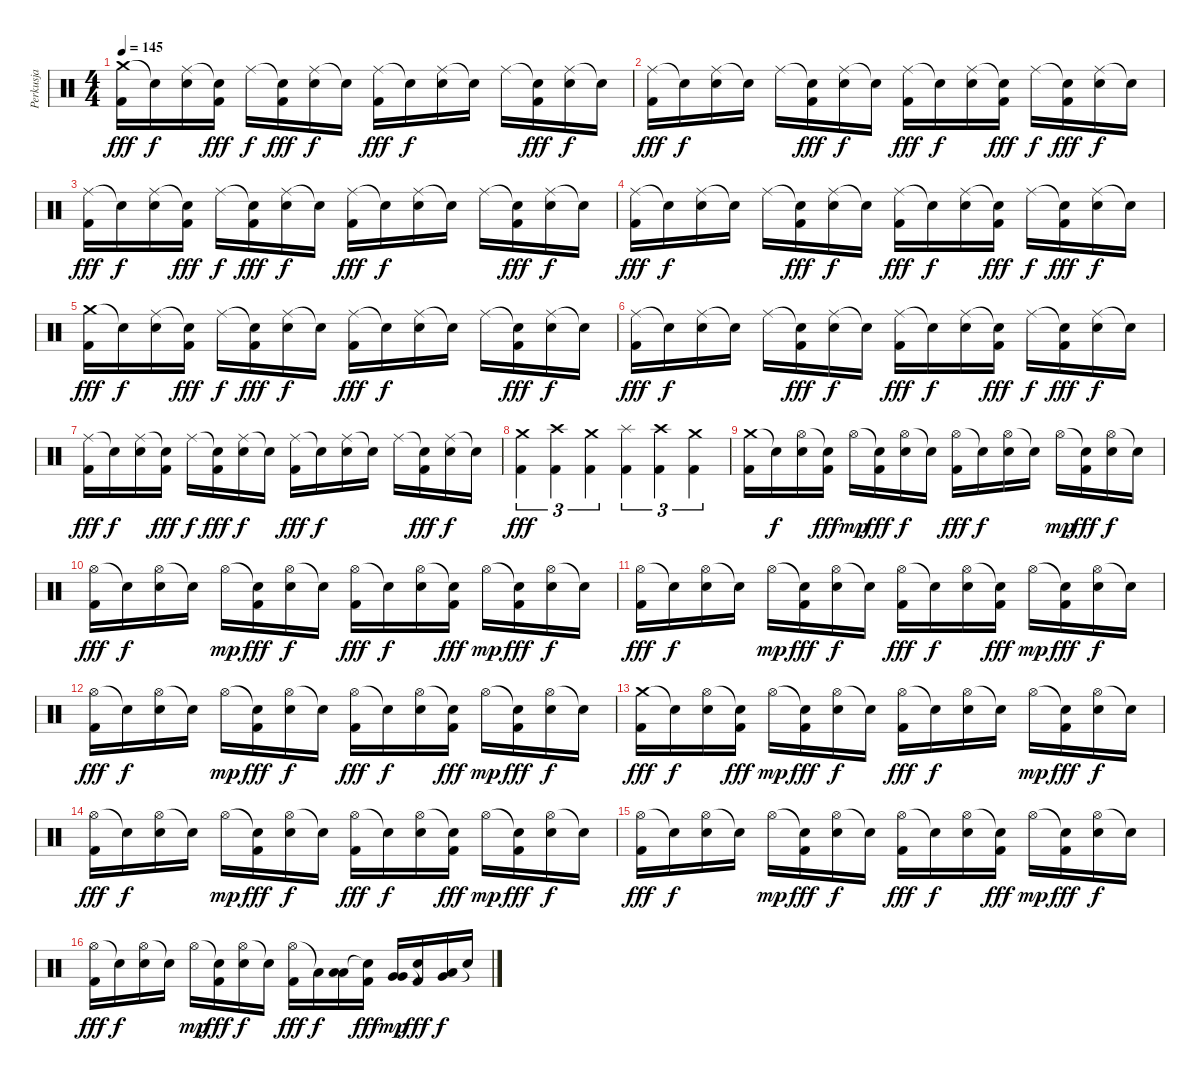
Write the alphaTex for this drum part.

\track ("Perkusja" "Perkusja") {instrument percussion}
\staff {score}
\articulation defaults
\ts (4 4)
\tempo 145
\clef neutral
\ks c
("Crash medium (hit)" "Kick (hit) 2").16{dy fff} "Snare (hit)"{t}.16{dy f} ("Ride (middle)" "Electric Snare (hit)").16 ("Snare (hit)"{t} "Kick (hit) 2").16{dy fff} "Ride (middle)".16{dy f} ("Snare (hit)"{t} "Kick (hit) 2").16{dy fff} ("Ride (middle)" "Electric Snare (hit)").16{dy f} "Snare (hit)"{t}.16 ("Ride (middle)" "Kick (hit) 2").16{dy fff} "Snare (hit)"{t}.16{dy f} ("Ride (middle)" "Electric Snare (hit)").16 "Snare (hit)"{t}.16 "Ride (middle)".16 ("Snare (hit)"{t} "Kick (hit) 2").16{dy fff} ("Ride (middle)" "Electric Snare (hit)").16{dy f} "Snare (hit)"{t}.16 |
("Ride (middle)" "Kick (hit) 2").16{dy fff} "Snare (hit)"{t}.16{dy f} ("Ride (middle)" "Electric Snare (hit)").16 "Snare (hit)"{t}.16 "Ride (middle)".16 ("Snare (hit)"{t} "Kick (hit) 2").16{dy fff} ("Ride (middle)" "Electric Snare (hit)").16{dy f} "Snare (hit)"{t}.16 ("Ride (middle)" "Kick (hit) 2").16{dy fff} "Snare (hit)"{t}.16{dy f} ("Ride (middle)" "Electric Snare (hit)").16 ("Snare (hit)"{t} "Kick (hit) 2").16{dy fff} "Ride (middle)".16{dy f} ("Snare (hit)"{t} "Kick (hit) 2").16{dy fff} ("Ride (middle)" "Electric Snare (hit)").16{dy f} "Snare (hit)"{t}.16 |
("Ride (middle)" "Kick (hit) 2").16{dy fff} "Snare (hit)"{t}.16{dy f} ("Ride (middle)" "Electric Snare (hit)").16 ("Snare (hit)"{t} "Kick (hit) 2").16{dy fff} "Ride (middle)".16{dy f} ("Snare (hit)"{t} "Kick (hit) 2").16{dy fff} ("Ride (middle)" "Electric Snare (hit)").16{dy f} "Snare (hit)"{t}.16 ("Ride (middle)" "Kick (hit) 2").16{dy fff} "Snare (hit)"{t}.16{dy f} ("Ride (middle)" "Electric Snare (hit)").16 "Snare (hit)"{t}.16 "Ride (middle)".16 ("Snare (hit)"{t} "Kick (hit) 2").16{dy fff} ("Ride (middle)" "Electric Snare (hit)").16{dy f} "Snare (hit)"{t}.16 |
("Ride (middle)" "Kick (hit) 2").16{dy fff} "Snare (hit)"{t}.16{dy f} ("Ride (middle)" "Electric Snare (hit)").16 "Snare (hit)"{t}.16 "Ride (middle)".16 ("Snare (hit)"{t} "Kick (hit) 2").16{dy fff} ("Ride (middle)" "Electric Snare (hit)").16{dy f} "Snare (hit)"{t}.16 ("Ride (middle)" "Kick (hit) 2").16{dy fff} "Snare (hit)"{t}.16{dy f} ("Ride (middle)" "Electric Snare (hit)").16 ("Snare (hit)"{t} "Kick (hit) 2").16{dy fff} "Ride (middle)".16{dy f} ("Snare (hit)"{t} "Kick (hit) 2").16{dy fff} ("Ride (middle)" "Electric Snare (hit)").16{dy f} "Snare (hit)"{t}.16 |
("Crash medium (hit)" "Kick (hit) 2").16{dy fff} "Snare (hit)"{t}.16{dy f} ("Ride (middle)" "Electric Snare (hit)").16 ("Snare (hit)"{t} "Kick (hit) 2").16{dy fff} "Ride (middle)".16{dy f} ("Snare (hit)"{t} "Kick (hit) 2").16{dy fff} ("Ride (middle)" "Electric Snare (hit)").16{dy f} "Snare (hit)"{t}.16 ("Ride (middle)" "Kick (hit) 2").16{dy fff} "Snare (hit)"{t}.16{dy f} ("Ride (middle)" "Electric Snare (hit)").16 "Snare (hit)"{t}.16 "Ride (middle)".16 ("Snare (hit)"{t} "Kick (hit) 2").16{dy fff} ("Ride (middle)" "Electric Snare (hit)").16{dy f} "Snare (hit)"{t}.16 |
("Ride (middle)" "Kick (hit) 2").16{dy fff} "Snare (hit)"{t}.16{dy f} ("Ride (middle)" "Electric Snare (hit)").16 "Snare (hit)"{t}.16 "Ride (middle)".16 ("Snare (hit)"{t} "Kick (hit) 2").16{dy fff} ("Ride (middle)" "Electric Snare (hit)").16{dy f} "Snare (hit)"{t}.16 ("Ride (middle)" "Kick (hit) 2").16{dy fff} "Snare (hit)"{t}.16{dy f} ("Ride (middle)" "Electric Snare (hit)").16 ("Snare (hit)"{t} "Kick (hit) 2").16{dy fff} "Ride (middle)".16{dy f} ("Snare (hit)"{t} "Kick (hit) 2").16{dy fff} ("Ride (middle)" "Electric Snare (hit)").16{dy f} "Snare (hit)"{t}.16 |
("Ride (middle)" "Kick (hit) 2").16{dy fff} "Snare (hit)"{t}.16{dy f} ("Ride (middle)" "Electric Snare (hit)").16 ("Snare (hit)"{t} "Kick (hit) 2").16{dy fff} "Ride (middle)".16{dy f} ("Snare (hit)"{t} "Kick (hit) 2").16{dy fff} ("Ride (middle)" "Electric Snare (hit)").16{dy f} "Snare (hit)"{t}.16 ("Ride (middle)" "Kick (hit) 2").16{dy fff} "Snare (hit)"{t}.16{dy f} ("Ride (middle)" "Electric Snare (hit)").16 "Snare (hit)"{t}.16 "Ride (middle)".16 ("Snare (hit)"{t} "Kick (hit) 2").16{dy fff} ("Ride (middle)" "Electric Snare (hit)").16{dy f} "Snare (hit)"{t}.16 |
("Crash medium (hit)" "Kick (hit) 2").4{tu (3 2) dy fff} ("Crash high (hit)" "Kick (hit) 2").4{tu (3 2)} ("Crash medium (hit)" "Kick (hit) 2").4{tu (3 2)} ("Splash (hit)" "Kick (hit) 2").4{tu (3 2)} ("Crash high (hit)" "Kick (hit) 2").4{tu (3 2)} ("Crash medium (hit)" "Kick (hit) 2").4{tu (3 2)} |
("Crash medium (hit)" "Kick (hit) 2").16 "Snare (hit)"{t}.16{dy f} ("Hi-Hat (open)" "Electric Snare (hit)").16 ("Snare (hit)"{t} "Kick (hit) 2").16{dy fff} "Hi-Hat (open)".16{dy mp} ("Snare (hit)"{t} "Kick (hit) 2").16{dy fff} ("Hi-Hat (open)" "Electric Snare (hit)").16{dy f} "Snare (hit)"{t}.16 ("Hi-Hat (open)" "Kick (hit) 2").16{dy fff} "Snare (hit)"{t}.16{dy f} ("Hi-Hat (open)" "Electric Snare (hit)").16 "Snare (hit)"{t}.16 "Hi-Hat (open)".16{dy mp} ("Snare (hit)"{t} "Kick (hit) 2").16{dy fff} ("Hi-Hat (open)" "Electric Snare (hit)").16{dy f} "Snare (hit)"{t}.16 |
("Hi-Hat (open)" "Kick (hit) 2").16{dy fff} "Snare (hit)"{t}.16{dy f} ("Hi-Hat (open)" "Electric Snare (hit)").16 "Snare (hit)"{t}.16 "Hi-Hat (open)".16{dy mp} ("Snare (hit)"{t} "Kick (hit) 2").16{dy fff} ("Hi-Hat (open)" "Electric Snare (hit)").16{dy f} "Snare (hit)"{t}.16 ("Hi-Hat (open)" "Kick (hit) 2").16{dy fff} "Snare (hit)"{t}.16{dy f} ("Hi-Hat (open)" "Electric Snare (hit)").16 ("Snare (hit)"{t} "Kick (hit) 2").16{dy fff} "Hi-Hat (open)".16{dy mp} ("Snare (hit)"{t} "Kick (hit) 2").16{dy fff} ("Hi-Hat (open)" "Electric Snare (hit)").16{dy f} "Snare (hit)"{t}.16 |
("Hi-Hat (open)" "Kick (hit) 2").16{dy fff} "Snare (hit)"{t}.16{dy f} ("Hi-Hat (open)" "Electric Snare (hit)").16 "Snare (hit)"{t}.16 "Hi-Hat (open)".16{dy mp} ("Snare (hit)"{t} "Kick (hit) 2").16{dy fff} ("Hi-Hat (open)" "Electric Snare (hit)").16{dy f} "Snare (hit)"{t}.16 ("Hi-Hat (open)" "Kick (hit) 2").16{dy fff} "Snare (hit)"{t}.16{dy f} ("Hi-Hat (open)" "Electric Snare (hit)").16 ("Snare (hit)"{t} "Kick (hit) 2").16{dy fff} "Hi-Hat (open)".16{dy mp} ("Snare (hit)"{t} "Kick (hit) 2").16{dy fff} ("Hi-Hat (open)" "Electric Snare (hit)").16{dy f} "Snare (hit)"{t}.16 |
("Hi-Hat (open)" "Kick (hit) 2").16{dy fff} "Snare (hit)"{t}.16{dy f} ("Hi-Hat (open)" "Electric Snare (hit)").16 "Snare (hit)"{t}.16 "Hi-Hat (open)".16{dy mp} ("Snare (hit)"{t} "Kick (hit) 2").16{dy fff} ("Hi-Hat (open)" "Electric Snare (hit)").16{dy f} "Snare (hit)"{t}.16 ("Hi-Hat (open)" "Kick (hit) 2").16{dy fff} "Snare (hit)"{t}.16{dy f} ("Hi-Hat (open)" "Electric Snare (hit)").16 ("Snare (hit)"{t} "Kick (hit) 2").16{dy fff} "Hi-Hat (open)".16{dy mp} ("Snare (hit)"{t} "Kick (hit) 2").16{dy fff} ("Hi-Hat (open)" "Electric Snare (hit)").16{dy f} "Snare (hit)"{t}.16 |
("Crash medium (hit)" "Kick (hit) 2").16{dy fff} "Snare (hit)"{t}.16{dy f} ("Hi-Hat (open)" "Electric Snare (hit)").16 ("Snare (hit)"{t} "Kick (hit) 2").16{dy fff} "Hi-Hat (open)".16{dy mp} ("Snare (hit)"{t} "Kick (hit) 2").16{dy fff} ("Hi-Hat (open)" "Electric Snare (hit)").16{dy f} "Snare (hit)"{t}.16 ("Hi-Hat (open)" "Kick (hit) 2").16{dy fff} "Snare (hit)"{t}.16{dy f} ("Hi-Hat (open)" "Electric Snare (hit)").16 "Snare (hit)"{t}.16 "Hi-Hat (open)".16{dy mp} ("Snare (hit)"{t} "Kick (hit) 2").16{dy fff} ("Hi-Hat (open)" "Electric Snare (hit)").16{dy f} "Snare (hit)"{t}.16 |
("Hi-Hat (open)" "Kick (hit) 2").16{dy fff} "Snare (hit)"{t}.16{dy f} ("Hi-Hat (open)" "Electric Snare (hit)").16 "Snare (hit)"{t}.16 "Hi-Hat (open)".16{dy mp} ("Snare (hit)"{t} "Kick (hit) 2").16{dy fff} ("Hi-Hat (open)" "Electric Snare (hit)").16{dy f} "Snare (hit)"{t}.16 ("Hi-Hat (open)" "Kick (hit) 2").16{dy fff} "Snare (hit)"{t}.16{dy f} ("Hi-Hat (open)" "Electric Snare (hit)").16 ("Snare (hit)"{t} "Kick (hit) 2").16{dy fff} "Hi-Hat (open)".16{dy mp} ("Snare (hit)"{t} "Kick (hit) 2").16{dy fff} ("Hi-Hat (open)" "Electric Snare (hit)").16{dy f} "Snare (hit)"{t}.16 |
("Hi-Hat (open)" "Kick (hit) 2").16{dy fff} "Snare (hit)"{t}.16{dy f} ("Hi-Hat (open)" "Electric Snare (hit)").16 "Snare (hit)"{t}.16 "Hi-Hat (open)".16{dy mp} ("Snare (hit)"{t} "Kick (hit) 2").16{dy fff} ("Hi-Hat (open)" "Electric Snare (hit)").16{dy f} "Snare (hit)"{t}.16 ("Hi-Hat (open)" "Kick (hit) 2").16{dy fff} "Snare (hit)"{t}.16{dy f} ("Hi-Hat (open)" "Electric Snare (hit)").16 ("Snare (hit)"{t} "Kick (hit) 2").16{dy fff} "Hi-Hat (open)".16{dy mp} ("Snare (hit)"{t} "Kick (hit) 2").16{dy fff} ("Hi-Hat (open)" "Electric Snare (hit)").16{dy f} "Snare (hit)"{t}.16 |
("Hi-Hat (open)" "Kick (hit) 2").16{dy fff} "Snare (hit)"{t}.16{dy f} ("Hi-Hat (open)" "Electric Snare (hit)").16 "Snare (hit)"{t}.16 "Hi-Hat (open)".16{dy mp} ("Snare (hit)"{t} "Kick (hit) 2").16{dy fff} ("Hi-Hat (open)" "Electric Snare (hit)").16{dy f} "Snare (hit)"{t}.16 ("Hi-Hat (open)" "Kick (hit) 2").16{dy fff} "Low Tom (hit)"{t}.16{dy f} ("Low Tom (hit)" "Low Tom (hit)").16 ("Snare (hit)"{t} "Kick (hit) 2").16{dy fff} ("Very Low Tom (hit)" "Very Low Tom (hit)").16{dy mp} ("Snare (hit)"{t} "Kick (hit) 2").16{dy fff} ("Very Low Tom (hit)" "Low Floor Tom (hit)").16{dy f} "Snare (hit)"{t}.16
